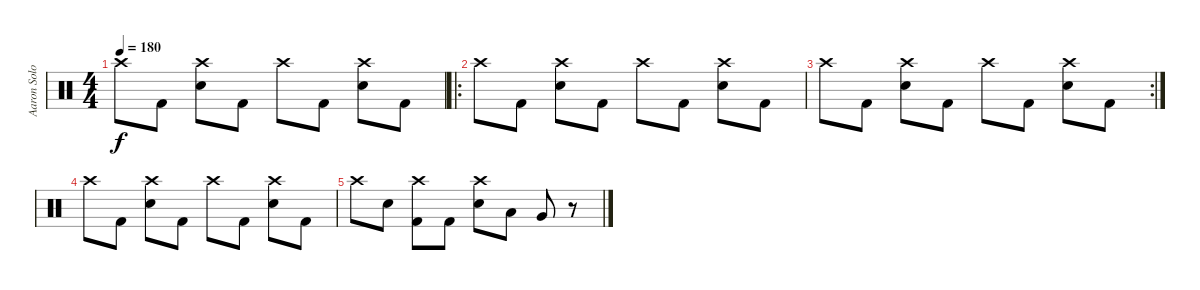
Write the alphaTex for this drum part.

\track ("Aaron Solowoniuk" "Aaron Solo") {instrument percussion}
\staff {score}
\articulation defaults
\ts (4 4)
\tempo 180
\clef neutral
\ks c "Crash high (hit)".8{dy f} "Kick (hit) 2".8
("Crash high (hit)" "Electric Snare (hit)").8 "Kick (hit) 2".8 "Crash high (hit)".8 "Kick (hit) 2".8 ("Crash high (hit)" "Electric Snare (hit)").8 "Kick (hit) 2".8 |
\ro "Crash high (hit)".8 "Kick (hit) 2".8
("Crash high (hit)" "Electric Snare (hit)").8 "Kick (hit) 2".8 "Crash high (hit)".8 "Kick (hit) 2".8 ("Crash high (hit)" "Electric Snare (hit)").8 "Kick (hit) 2".8 |
\rc 2 "Crash high (hit)".8 "Kick (hit) 2".8
("Crash high (hit)" "Electric Snare (hit)").8 "Kick (hit) 2".8 "Crash high (hit)".8 "Kick (hit) 2".8 ("Crash high (hit)" "Electric Snare (hit)").8 "Kick (hit) 2".8 |
"Crash high (hit)".8 "Kick (hit) 2".8 ("Crash high (hit)" "Electric Snare (hit)").8 "Kick (hit) 2".8 "Crash high (hit)".8 "Kick (hit) 2".8 ("Crash high (hit)" "Electric Snare (hit)").8 "Kick (hit) 2".8 |
"Crash high (hit)".8 "Electric Snare (hit)".8 ("Crash high (hit)" "Kick (hit) 2").8 "Kick (hit) 2".8 ("Crash high (hit)" "Electric Snare (hit)").8 "Low Tom (hit)".8 "Very Low Tom (hit)".8 r.8
